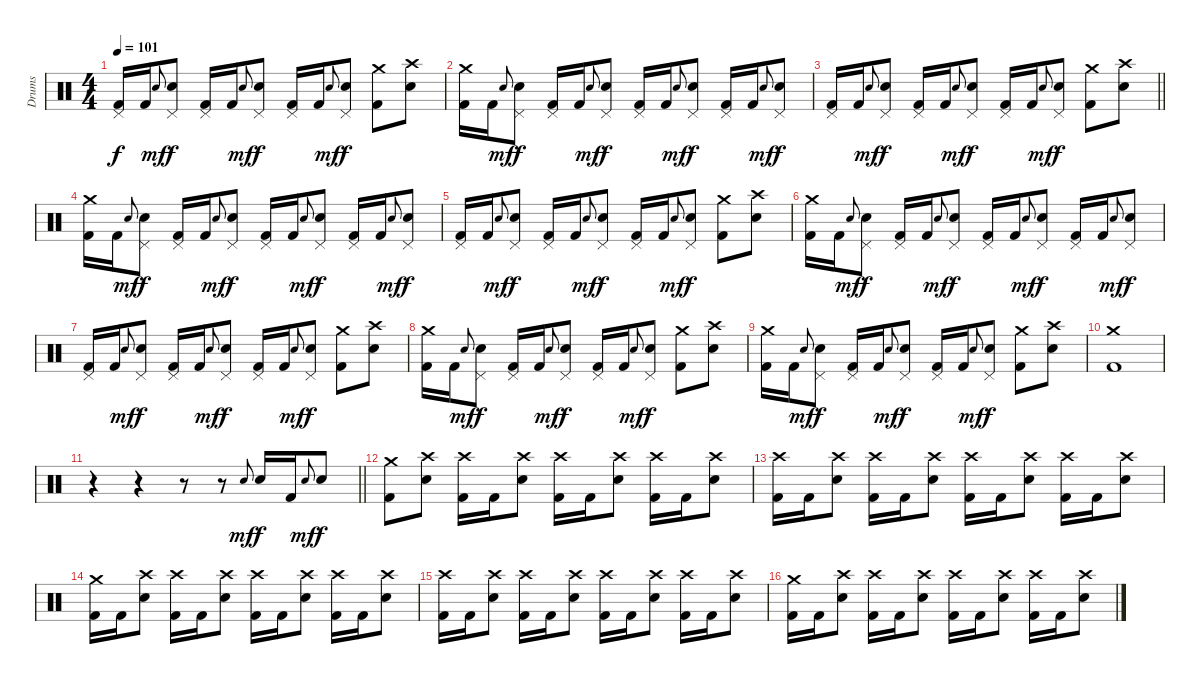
\track ("Drums" "Drums") {instrument percussion}
\staff {score}
\articulation defaults
\ts (4 4)
\tempo 101
\clef neutral
\ks c
("Pedal Hi-Hat (hit)" "Kick (hit) 2").16{dy f} "Kick (hit) 2".16 "Electric Snare (hit)".8{gr onbeat dy mf} ("Pedal Hi-Hat (hit)" "Electric Snare (hit)").8{dy f} ("Pedal Hi-Hat (hit)" "Kick (hit) 2").16 "Kick (hit) 2".16 "Electric Snare (hit)".8{gr onbeat dy mf} ("Pedal Hi-Hat (hit)" "Electric Snare (hit)").8{dy f} ("Pedal Hi-Hat (hit)" "Kick (hit) 2").16 "Kick (hit) 2".16 "Electric Snare (hit)".8{gr onbeat dy mf} ("Pedal Hi-Hat (hit)" "Electric Snare (hit)").8{dy f} ("Crash medium (hit)" "Kick (hit) 2").8 ("Crash high (hit)" "Electric Snare (hit)").8 |
("Crash medium (hit)" "Kick (hit) 2").16 "Kick (hit) 2".16 "Electric Snare (hit)".8{gr onbeat dy mf} ("Pedal Hi-Hat (hit)" "Electric Snare (hit)").8{dy f} ("Pedal Hi-Hat (hit)" "Kick (hit) 2").16 "Kick (hit) 2".16 "Electric Snare (hit)".8{gr onbeat dy mf} ("Pedal Hi-Hat (hit)" "Electric Snare (hit)").8{dy f} ("Pedal Hi-Hat (hit)" "Kick (hit) 2").16 "Kick (hit) 2".16 "Electric Snare (hit)".8{gr onbeat dy mf} ("Pedal Hi-Hat (hit)" "Electric Snare (hit)").8{dy f} ("Pedal Hi-Hat (hit)" "Kick (hit) 2").16 "Kick (hit) 2".16 "Electric Snare (hit)".8{gr onbeat dy mf} ("Pedal Hi-Hat (hit)" "Electric Snare (hit)").8{dy f} |
\barLineRight lightlight
("Pedal Hi-Hat (hit)" "Kick (hit) 2").16 "Kick (hit) 2".16 "Electric Snare (hit)".8{gr onbeat dy mf} ("Pedal Hi-Hat (hit)" "Electric Snare (hit)").8{dy f} ("Pedal Hi-Hat (hit)" "Kick (hit) 2").16 "Kick (hit) 2".16 "Electric Snare (hit)".8{gr onbeat dy mf} ("Pedal Hi-Hat (hit)" "Electric Snare (hit)").8{dy f} ("Pedal Hi-Hat (hit)" "Kick (hit) 2").16 "Kick (hit) 2".16 "Electric Snare (hit)".8{gr onbeat dy mf} ("Pedal Hi-Hat (hit)" "Electric Snare (hit)").8{dy f} ("Crash medium (hit)" "Kick (hit) 2").8 ("Crash high (hit)" "Electric Snare (hit)").8 |
("Crash medium (hit)" "Kick (hit) 2").16 "Kick (hit) 2".16 "Electric Snare (hit)".8{gr onbeat dy mf} ("Pedal Hi-Hat (hit)" "Electric Snare (hit)").8{dy f} ("Pedal Hi-Hat (hit)" "Kick (hit) 2").16 "Kick (hit) 2".16 "Electric Snare (hit)".8{gr onbeat dy mf} ("Pedal Hi-Hat (hit)" "Electric Snare (hit)").8{dy f} ("Pedal Hi-Hat (hit)" "Kick (hit) 2").16 "Kick (hit) 2".16 "Electric Snare (hit)".8{gr onbeat dy mf} ("Pedal Hi-Hat (hit)" "Electric Snare (hit)").8{dy f} ("Pedal Hi-Hat (hit)" "Kick (hit) 2").16 "Kick (hit) 2".16 "Electric Snare (hit)".8{gr onbeat dy mf} ("Pedal Hi-Hat (hit)" "Electric Snare (hit)").8{dy f} |
("Pedal Hi-Hat (hit)" "Kick (hit) 2").16 "Kick (hit) 2".16 "Electric Snare (hit)".8{gr onbeat dy mf} ("Pedal Hi-Hat (hit)" "Electric Snare (hit)").8{dy f} ("Pedal Hi-Hat (hit)" "Kick (hit) 2").16 "Kick (hit) 2".16 "Electric Snare (hit)".8{gr onbeat dy mf} ("Pedal Hi-Hat (hit)" "Electric Snare (hit)").8{dy f} ("Pedal Hi-Hat (hit)" "Kick (hit) 2").16 "Kick (hit) 2".16 "Electric Snare (hit)".8{gr onbeat dy mf} ("Pedal Hi-Hat (hit)" "Electric Snare (hit)").8{dy f} ("Crash medium (hit)" "Kick (hit) 2").8 ("Crash high (hit)" "Electric Snare (hit)").8 |
("Crash medium (hit)" "Kick (hit) 2").16 "Kick (hit) 2".16 "Electric Snare (hit)".8{gr onbeat dy mf} ("Pedal Hi-Hat (hit)" "Electric Snare (hit)").8{dy f} ("Pedal Hi-Hat (hit)" "Kick (hit) 2").16 "Kick (hit) 2".16 "Electric Snare (hit)".8{gr onbeat dy mf} ("Pedal Hi-Hat (hit)" "Electric Snare (hit)").8{dy f} ("Pedal Hi-Hat (hit)" "Kick (hit) 2").16 "Kick (hit) 2".16 "Electric Snare (hit)".8{gr onbeat dy mf} ("Pedal Hi-Hat (hit)" "Electric Snare (hit)").8{dy f} ("Pedal Hi-Hat (hit)" "Kick (hit) 2").16 "Kick (hit) 2".16 "Electric Snare (hit)".8{gr onbeat dy mf} ("Pedal Hi-Hat (hit)" "Electric Snare (hit)").8{dy f} |
("Pedal Hi-Hat (hit)" "Kick (hit) 2").16 "Kick (hit) 2".16 "Electric Snare (hit)".8{gr onbeat dy mf} ("Pedal Hi-Hat (hit)" "Electric Snare (hit)").8{dy f} ("Pedal Hi-Hat (hit)" "Kick (hit) 2").16 "Kick (hit) 2".16 "Electric Snare (hit)".8{gr onbeat dy mf} ("Pedal Hi-Hat (hit)" "Electric Snare (hit)").8{dy f} ("Pedal Hi-Hat (hit)" "Kick (hit) 2").16 "Kick (hit) 2".16 "Electric Snare (hit)".8{gr onbeat dy mf} ("Pedal Hi-Hat (hit)" "Electric Snare (hit)").8{dy f} ("Crash medium (hit)" "Kick (hit) 2").8 ("Crash high (hit)" "Electric Snare (hit)").8 |
("Crash medium (hit)" "Kick (hit) 2").16 "Kick (hit) 2".16 "Electric Snare (hit)".8{gr onbeat dy mf} ("Pedal Hi-Hat (hit)" "Electric Snare (hit)").8{dy f} ("Pedal Hi-Hat (hit)" "Kick (hit) 2").16 "Kick (hit) 2".16 "Electric Snare (hit)".8{gr onbeat dy mf} ("Pedal Hi-Hat (hit)" "Electric Snare (hit)").8{dy f} ("Pedal Hi-Hat (hit)" "Kick (hit) 2").16 "Kick (hit) 2".16 "Electric Snare (hit)".8{gr onbeat dy mf} ("Pedal Hi-Hat (hit)" "Electric Snare (hit)").8{dy f} ("Crash medium (hit)" "Kick (hit) 2").8 ("Crash high (hit)" "Electric Snare (hit)").8 |
("Crash medium (hit)" "Kick (hit) 2").16 "Kick (hit) 2".16 "Electric Snare (hit)".8{gr onbeat dy mf} ("Pedal Hi-Hat (hit)" "Electric Snare (hit)").8{dy f} ("Pedal Hi-Hat (hit)" "Kick (hit) 2").16 "Kick (hit) 2".16 "Electric Snare (hit)".8{gr onbeat dy mf} ("Pedal Hi-Hat (hit)" "Electric Snare (hit)").8{dy f} ("Pedal Hi-Hat (hit)" "Kick (hit) 2").16 "Kick (hit) 2".16 "Electric Snare (hit)".8{gr onbeat dy mf} ("Pedal Hi-Hat (hit)" "Electric Snare (hit)").8{dy f} ("Crash medium (hit)" "Kick (hit) 2").8 ("Crash high (hit)" "Electric Snare (hit)").8 |
("Crash medium (hit)" "Kick (hit) 2").1 |
\barLineRight lightlight
r.4 r.4 r.8 r.8 "Electric Snare (hit)".8{gr onbeat dy mf} "Electric Snare (hit)".16{dy f} "Kick (hit) 2".16 "Electric Snare (hit)".8{gr onbeat dy mf} "Electric Snare (hit)".8{dy f} |
("Crash medium (hit)" "Kick (hit) 2").8 ("Crash high (hit)" "Electric Snare (hit)").8 ("Crash high (hit)" "Kick (hit) 2").16 "Kick (hit) 2".16 ("Crash high (hit)" "Electric Snare (hit)").8 ("Crash high (hit)" "Kick (hit) 2").16 "Kick (hit) 2".16 ("Crash high (hit)" "Electric Snare (hit)").8 ("Crash high (hit)" "Kick (hit) 2").16 "Kick (hit) 2".16 ("Crash high (hit)" "Electric Snare (hit)").8 |
("Crash high (hit)" "Kick (hit) 2").16 "Kick (hit) 2".16 ("Crash high (hit)" "Electric Snare (hit)").8 ("Crash high (hit)" "Kick (hit) 2").16 "Kick (hit) 2".16 ("Crash high (hit)" "Electric Snare (hit)").8 ("Crash high (hit)" "Kick (hit) 2").16 "Kick (hit) 2".16 ("Crash high (hit)" "Electric Snare (hit)").8 ("Crash high (hit)" "Kick (hit) 2").16 "Kick (hit) 2".16 ("Crash high (hit)" "Electric Snare (hit)").8 |
("Crash medium (hit)" "Kick (hit) 2").16 "Kick (hit) 2".16 ("Crash high (hit)" "Electric Snare (hit)").8 ("Crash high (hit)" "Kick (hit) 2").16 "Kick (hit) 2".16 ("Crash high (hit)" "Electric Snare (hit)").8 ("Crash high (hit)" "Kick (hit) 2").16 "Kick (hit) 2".16 ("Crash high (hit)" "Electric Snare (hit)").8 ("Crash high (hit)" "Kick (hit) 2").16 "Kick (hit) 2".16 ("Crash high (hit)" "Electric Snare (hit)").8 |
("Crash high (hit)" "Kick (hit) 2").16 "Kick (hit) 2".16 ("Crash high (hit)" "Electric Snare (hit)").8 ("Crash high (hit)" "Kick (hit) 2").16 "Kick (hit) 2".16 ("Crash high (hit)" "Electric Snare (hit)").8 ("Crash high (hit)" "Kick (hit) 2").16 "Kick (hit) 2".16 ("Crash high (hit)" "Electric Snare (hit)").8 ("Crash high (hit)" "Kick (hit) 2").16 "Kick (hit) 2".16 ("Crash high (hit)" "Electric Snare (hit)").8 |
("Crash medium (hit)" "Kick (hit) 2").16 "Kick (hit) 2".16 ("Crash high (hit)" "Electric Snare (hit)").8 ("Crash high (hit)" "Kick (hit) 2").16 "Kick (hit) 2".16 ("Crash high (hit)" "Electric Snare (hit)").8 ("Crash high (hit)" "Kick (hit) 2").16 "Kick (hit) 2".16 ("Crash high (hit)" "Electric Snare (hit)").8 ("Crash high (hit)" "Kick (hit) 2").16 "Kick (hit) 2".16 ("Crash high (hit)" "Electric Snare (hit)").8
